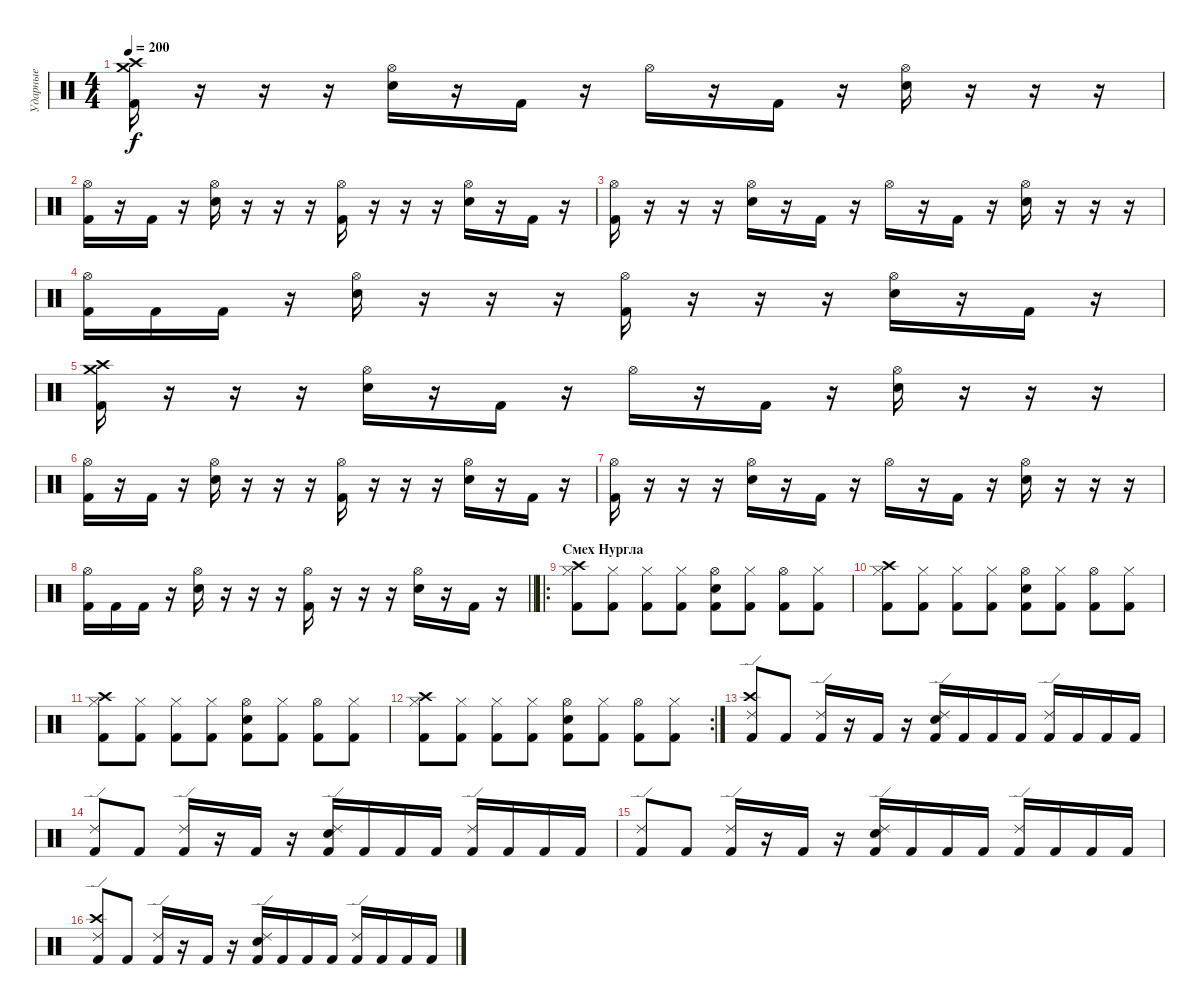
\track ("Ударные" "Ударные") {instrument percussion}
\staff {score}
\articulation defaults
\ts (4 4)
\tempo 200
\clef neutral
\ks c
("Kick (hit) 2" "Crash medium (hit)" "Crash high (hit)").16{dy f} r.16 r.16 r.16 ("Snare (hit) 2" "Hi-Hat (open)").16 r.16 "Kick (hit) 2".16 r.16 "Hi-Hat (open)".16 r.16 "Kick (hit) 2".16 r.16 ("Snare (hit) 2" "Hi-Hat (open)").16 r.16 r.16 r.16 |
("Kick (hit) 2" "Hi-Hat (open)").16 r.16 "Kick (hit) 2".16 r.16 ("Snare (hit) 2" "Hi-Hat (open)").16 r.16 r.16 r.16 ("Kick (hit) 2" "Hi-Hat (open)").16 r.16 r.16 r.16 ("Snare (hit) 2" "Hi-Hat (open)").16 r.16 "Kick (hit) 2".16 r.16 |
("Kick (hit) 2" "Hi-Hat (open)").16 r.16 r.16 r.16 ("Snare (hit) 2" "Hi-Hat (open)").16 r.16 "Kick (hit) 2".16 r.16 "Hi-Hat (open)".16 r.16 "Kick (hit) 2".16 r.16 ("Snare (hit) 2" "Hi-Hat (open)").16 r.16 r.16 r.16 |
("Kick (hit) 2" "Hi-Hat (open)").16 "Kick (hit) 2".16 "Kick (hit) 2".16 r.16 ("Snare (hit) 2" "Hi-Hat (open)").16 r.16 r.16 r.16 ("Kick (hit) 2" "Hi-Hat (open)").16 r.16 r.16 r.16 ("Snare (hit) 2" "Hi-Hat (open)").16 r.16 "Kick (hit) 2".16 r.16 |
("Kick (hit) 2" "Crash medium (hit)" "Crash high (hit)").16 r.16 r.16 r.16 ("Snare (hit) 2" "Hi-Hat (open)").16 r.16 "Kick (hit) 2".16 r.16 "Hi-Hat (open)".16 r.16 "Kick (hit) 2".16 r.16 ("Snare (hit) 2" "Hi-Hat (open)").16 r.16 r.16 r.16 |
("Kick (hit) 2" "Hi-Hat (open)").16 r.16 "Kick (hit) 2".16 r.16 ("Snare (hit) 2" "Hi-Hat (open)").16 r.16 r.16 r.16 ("Kick (hit) 2" "Hi-Hat (open)").16 r.16 r.16 r.16 ("Snare (hit) 2" "Hi-Hat (open)").16 r.16 "Kick (hit) 2".16 r.16 |
("Kick (hit) 2" "Hi-Hat (open)").16 r.16 r.16 r.16 ("Snare (hit) 2" "Hi-Hat (open)").16 r.16 "Kick (hit) 2".16 r.16 "Hi-Hat (open)".16 r.16 "Kick (hit) 2".16 r.16 ("Snare (hit) 2" "Hi-Hat (open)").16 r.16 r.16 r.16 |
\barLineRight lightlight
("Kick (hit) 2" "Hi-Hat (open)").16 "Kick (hit) 2".16 "Kick (hit) 2".16 r.16 ("Snare (hit) 2" "Hi-Hat (open)").16 r.16 r.16 r.16 ("Kick (hit) 2" "Hi-Hat (open)").16 r.16 r.16 r.16 ("Snare (hit) 2" "Hi-Hat (open)").16 r.16 "Kick (hit) 2".16 r.16 |
\ro
\section ("" "Смех Нургла")
("Crash high (hit)" "Hi-Hat (closed)" "Kick (hit) 2").8 ("Hi-Hat (closed)" "Kick (hit) 2").8 ("Hi-Hat (closed)" "Kick (hit) 2").8 ("Hi-Hat (closed)" "Kick (hit) 2").8 ("Snare (hit) 2" "Hi-Hat (open)" "Kick (hit) 2").8 ("Hi-Hat (closed)" "Kick (hit) 2").8 ("Hi-Hat (open)" "Kick (hit) 2").8 ("Hi-Hat (closed)" "Kick (hit) 2").8 |
("Crash high (hit)" "Hi-Hat (closed)" "Kick (hit) 2").8 ("Hi-Hat (closed)" "Kick (hit) 2").8 ("Hi-Hat (closed)" "Kick (hit) 2").8 ("Hi-Hat (closed)" "Kick (hit) 2").8 ("Snare (hit) 2" "Hi-Hat (open)" "Kick (hit) 2").8 ("Hi-Hat (closed)" "Kick (hit) 2").8 ("Hi-Hat (open)" "Kick (hit) 2").8 ("Hi-Hat (closed)" "Kick (hit) 2").8 |
("Crash high (hit)" "Hi-Hat (closed)" "Kick (hit) 2").8 ("Hi-Hat (closed)" "Kick (hit) 2").8 ("Hi-Hat (closed)" "Kick (hit) 2").8 ("Hi-Hat (closed)" "Kick (hit) 2").8 ("Snare (hit) 2" "Hi-Hat (open)" "Kick (hit) 2").8 ("Hi-Hat (closed)" "Kick (hit) 2").8 ("Hi-Hat (open)" "Kick (hit) 2").8 ("Hi-Hat (closed)" "Kick (hit) 2").8 |
\rc 2
("Crash high (hit)" "Hi-Hat (closed)" "Kick (hit) 2").8 ("Hi-Hat (closed)" "Kick (hit) 2").8 ("Hi-Hat (closed)" "Kick (hit) 2").8 ("Hi-Hat (closed)" "Kick (hit) 2").8 ("Snare (hit) 2" "Hi-Hat (open)" "Kick (hit) 2").8 ("Hi-Hat (closed)" "Kick (hit) 2").8 ("Hi-Hat (open)" "Kick (hit) 2").8 ("Hi-Hat (closed)" "Kick (hit) 2").8 |
("Crash high (hit)" "Ride (edge) 2" "Kick (hit) 2").8 "Kick (hit) 2".8 ("Ride (edge) 2" "Kick (hit) 2").16 r.16 "Kick (hit) 2".16 r.16 ("Snare (hit) 2" "Ride (edge) 2" "Kick (hit) 2").16 "Kick (hit) 2".16 "Kick (hit) 2".16 "Kick (hit) 2".16 ("Ride (edge) 2" "Kick (hit) 2").16 "Kick (hit) 2".16 "Kick (hit) 2".16 "Kick (hit) 2".16 |
("Ride (edge) 2" "Kick (hit) 2").8 "Kick (hit) 2".8 ("Ride (edge) 2" "Kick (hit) 2").16 r.16 "Kick (hit) 2".16 r.16 ("Snare (hit) 2" "Ride (edge) 2" "Kick (hit) 2").16 "Kick (hit) 2".16 "Kick (hit) 2".16 "Kick (hit) 2".16 ("Ride (edge) 2" "Kick (hit) 2").16 "Kick (hit) 2".16 "Kick (hit) 2".16 "Kick (hit) 2".16 |
("Ride (edge) 2" "Kick (hit) 2").8 "Kick (hit) 2".8 ("Ride (edge) 2" "Kick (hit) 2").16 r.16 "Kick (hit) 2".16 r.16 ("Snare (hit) 2" "Ride (edge) 2" "Kick (hit) 2").16 "Kick (hit) 2".16 "Kick (hit) 2".16 "Kick (hit) 2".16 ("Ride (edge) 2" "Kick (hit) 2").16 "Kick (hit) 2".16 "Kick (hit) 2".16 "Kick (hit) 2".16 |
("Crash high (hit)" "Ride (edge) 2" "Kick (hit) 2").8 "Kick (hit) 2".8 ("Ride (edge) 2" "Kick (hit) 2").16 r.16 "Kick (hit) 2".16 r.16 ("Snare (hit) 2" "Ride (edge) 2" "Kick (hit) 2").16 "Kick (hit) 2".16 "Kick (hit) 2".16 "Kick (hit) 2".16 ("Ride (edge) 2" "Kick (hit) 2").16 "Kick (hit) 2".16 "Kick (hit) 2".16 "Kick (hit) 2".16
